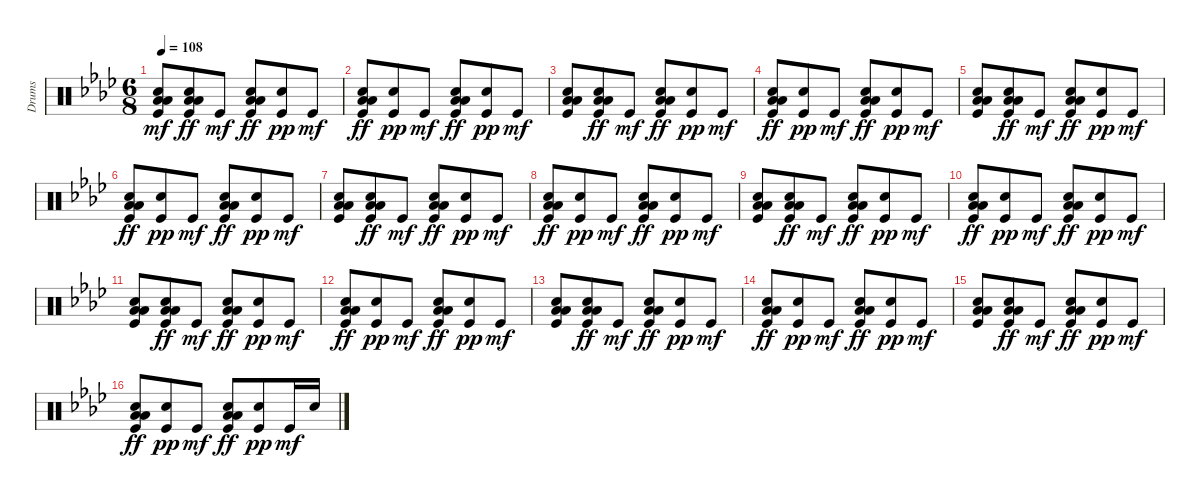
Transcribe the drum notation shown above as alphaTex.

\track ("Drums" "Drums") {instrument percussion}
\staff {score}
\articulation defaults
\ts (6 8)
\tempo 108
\clef neutral
\ks ab
("Kick (hit)" "Hand Clap (hit)" "Low Floor Tom (hit)" "Low Tom (hit)").8{dy mf} ("Kick (hit)" "Hand Clap (hit)" "Low Floor Tom (hit)" "Low Tom (hit)").8{dy ff} "Kick (hit)".8{dy mf} ("Kick (hit)" "Hand Clap (hit)" "Low Floor Tom (hit)" "Low Tom (hit)").8{dy ff} ("Kick (hit)" "Hand Clap (hit)").8{dy pp} "Kick (hit)".8{dy mf} |
("Kick (hit)" "Hand Clap (hit)" "Low Floor Tom (hit)" "Low Tom (hit)").8{dy ff} ("Kick (hit)" "Hand Clap (hit)").8{dy pp} "Kick (hit)".8{dy mf} ("Kick (hit)" "Hand Clap (hit)" "Low Floor Tom (hit)" "Low Tom (hit)").8{dy ff} ("Kick (hit)" "Hand Clap (hit)").8{dy pp} "Kick (hit)".8{dy mf} |
("Kick (hit)" "Hand Clap (hit)" "Low Floor Tom (hit)" "Low Tom (hit)").8 ("Kick (hit)" "Hand Clap (hit)" "Low Floor Tom (hit)" "Low Tom (hit)").8{dy ff} "Kick (hit)".8{dy mf} ("Kick (hit)" "Hand Clap (hit)" "Low Floor Tom (hit)" "Low Tom (hit)").8{dy ff} ("Kick (hit)" "Hand Clap (hit)").8{dy pp} "Kick (hit)".8{dy mf} |
("Kick (hit)" "Hand Clap (hit)" "Low Floor Tom (hit)" "Low Tom (hit)").8{dy ff} ("Kick (hit)" "Hand Clap (hit)").8{dy pp} "Kick (hit)".8{dy mf} ("Kick (hit)" "Hand Clap (hit)" "Low Floor Tom (hit)" "Low Tom (hit)").8{dy ff} ("Kick (hit)" "Hand Clap (hit)").8{dy pp} "Kick (hit)".8{dy mf} |
("Kick (hit)" "Hand Clap (hit)" "Low Floor Tom (hit)" "Low Tom (hit)").8 ("Kick (hit)" "Hand Clap (hit)" "Low Floor Tom (hit)" "Low Tom (hit)").8{dy ff} "Kick (hit)".8{dy mf} ("Kick (hit)" "Hand Clap (hit)" "Low Floor Tom (hit)" "Low Tom (hit)").8{dy ff} ("Kick (hit)" "Hand Clap (hit)").8{dy pp} "Kick (hit)".8{dy mf} |
("Kick (hit)" "Hand Clap (hit)" "Low Floor Tom (hit)" "Low Tom (hit)").8{dy ff} ("Kick (hit)" "Hand Clap (hit)").8{dy pp} "Kick (hit)".8{dy mf} ("Kick (hit)" "Hand Clap (hit)" "Low Floor Tom (hit)" "Low Tom (hit)").8{dy ff} ("Kick (hit)" "Hand Clap (hit)").8{dy pp} "Kick (hit)".8{dy mf} |
("Kick (hit)" "Hand Clap (hit)" "Low Floor Tom (hit)" "Low Tom (hit)").8 ("Kick (hit)" "Hand Clap (hit)" "Low Floor Tom (hit)" "Low Tom (hit)").8{dy ff} "Kick (hit)".8{dy mf} ("Kick (hit)" "Hand Clap (hit)" "Low Floor Tom (hit)" "Low Tom (hit)").8{dy ff} ("Kick (hit)" "Hand Clap (hit)").8{dy pp} "Kick (hit)".8{dy mf} |
("Kick (hit)" "Hand Clap (hit)" "Low Floor Tom (hit)" "Low Tom (hit)").8{dy ff} ("Kick (hit)" "Hand Clap (hit)").8{dy pp} "Kick (hit)".8{dy mf} ("Kick (hit)" "Hand Clap (hit)" "Low Floor Tom (hit)" "Low Tom (hit)").8{dy ff} ("Kick (hit)" "Hand Clap (hit)").8{dy pp} "Kick (hit)".8{dy mf} |
("Kick (hit)" "Hand Clap (hit)" "Low Floor Tom (hit)" "Low Tom (hit)").8 ("Kick (hit)" "Hand Clap (hit)" "Low Floor Tom (hit)" "Low Tom (hit)").8{dy ff} "Kick (hit)".8{dy mf} ("Kick (hit)" "Hand Clap (hit)" "Low Floor Tom (hit)" "Low Tom (hit)").8{dy ff} ("Kick (hit)" "Hand Clap (hit)").8{dy pp} "Kick (hit)".8{dy mf} |
("Kick (hit)" "Hand Clap (hit)" "Low Floor Tom (hit)" "Low Tom (hit)").8{dy ff} ("Kick (hit)" "Hand Clap (hit)").8{dy pp} "Kick (hit)".8{dy mf} ("Kick (hit)" "Hand Clap (hit)" "Low Floor Tom (hit)" "Low Tom (hit)").8{dy ff} ("Kick (hit)" "Hand Clap (hit)").8{dy pp} "Kick (hit)".8{dy mf} |
("Kick (hit)" "Hand Clap (hit)" "Low Floor Tom (hit)" "Low Tom (hit)").8 ("Kick (hit)" "Hand Clap (hit)" "Low Floor Tom (hit)" "Low Tom (hit)").8{dy ff} "Kick (hit)".8{dy mf} ("Kick (hit)" "Hand Clap (hit)" "Low Floor Tom (hit)" "Low Tom (hit)").8{dy ff} ("Kick (hit)" "Hand Clap (hit)").8{dy pp} "Kick (hit)".8{dy mf} |
("Kick (hit)" "Hand Clap (hit)" "Low Floor Tom (hit)" "Low Tom (hit)").8{dy ff} ("Kick (hit)" "Hand Clap (hit)").8{dy pp} "Kick (hit)".8{dy mf} ("Kick (hit)" "Hand Clap (hit)" "Low Floor Tom (hit)" "Low Tom (hit)").8{dy ff} ("Kick (hit)" "Hand Clap (hit)").8{dy pp} "Kick (hit)".8{dy mf} |
("Kick (hit)" "Hand Clap (hit)" "Low Floor Tom (hit)" "Low Tom (hit)").8 ("Kick (hit)" "Hand Clap (hit)" "Low Floor Tom (hit)" "Low Tom (hit)").8{dy ff} "Kick (hit)".8{dy mf} ("Kick (hit)" "Hand Clap (hit)" "Low Floor Tom (hit)" "Low Tom (hit)").8{dy ff} ("Kick (hit)" "Hand Clap (hit)").8{dy pp} "Kick (hit)".8{dy mf} |
("Kick (hit)" "Hand Clap (hit)" "Low Floor Tom (hit)" "Low Tom (hit)").8{dy ff} ("Kick (hit)" "Hand Clap (hit)").8{dy pp} "Kick (hit)".8{dy mf} ("Kick (hit)" "Hand Clap (hit)" "Low Floor Tom (hit)" "Low Tom (hit)").8{dy ff} ("Kick (hit)" "Hand Clap (hit)").8{dy pp} "Kick (hit)".8{dy mf} |
("Kick (hit)" "Hand Clap (hit)" "Low Floor Tom (hit)" "Low Tom (hit)").8 ("Kick (hit)" "Hand Clap (hit)" "Low Floor Tom (hit)" "Low Tom (hit)").8{dy ff} "Kick (hit)".8{dy mf} ("Kick (hit)" "Hand Clap (hit)" "Low Floor Tom (hit)" "Low Tom (hit)").8{dy ff} ("Kick (hit)" "Hand Clap (hit)").8{dy pp} "Kick (hit)".8{dy mf} |
("Kick (hit)" "Hand Clap (hit)" "Low Floor Tom (hit)" "Low Tom (hit)").8{dy ff} ("Kick (hit)" "Hand Clap (hit)").8{dy pp} "Kick (hit)".8{dy mf} ("Kick (hit)" "Hand Clap (hit)" "Low Floor Tom (hit)" "Low Tom (hit)").8{dy ff} ("Kick (hit)" "Hand Clap (hit)").8{dy pp} "Kick (hit)".16{dy mf} "Electric Snare (hit)".16
